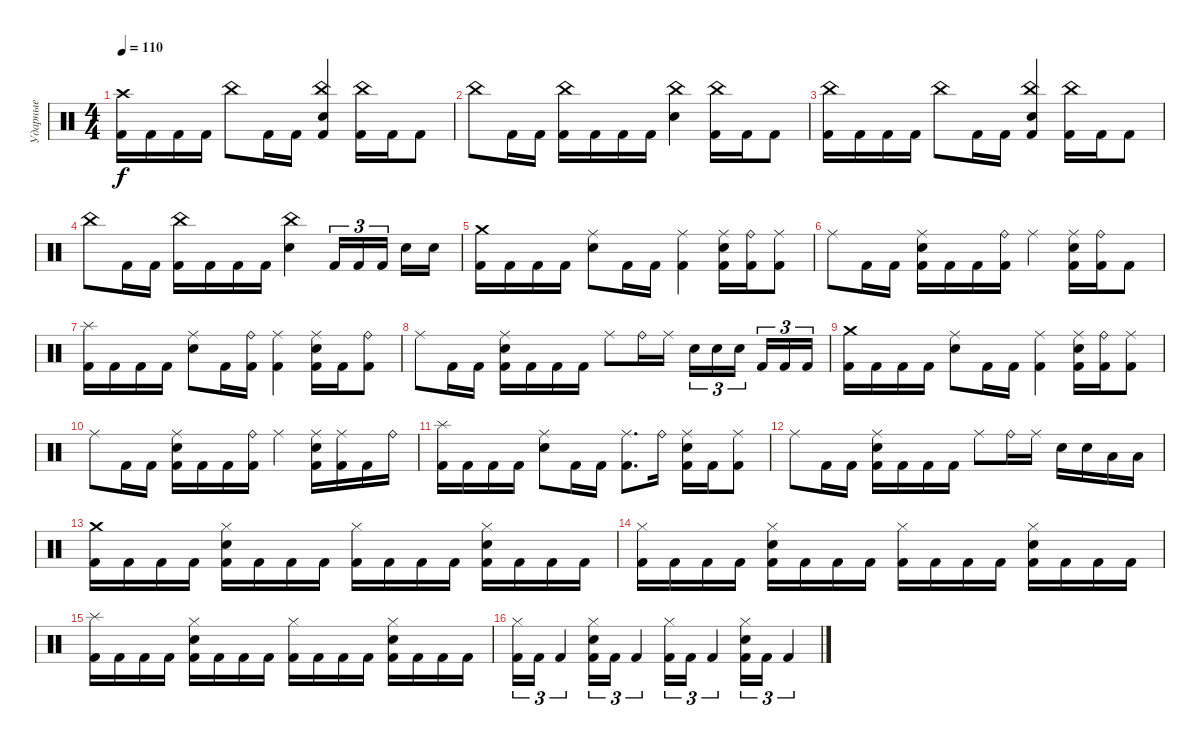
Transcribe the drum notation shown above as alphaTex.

\track ("Ударные" "Ударные") {instrument percussion}
\staff {score}
\articulation defaults
\ts (4 4)
\tempo 110
\clef neutral
\ks c
("Crash high (hit)" "Kick (hit) 2").16{dy f} "Kick (hit) 2".16 "Kick (hit) 2".16 "Kick (hit) 2".16 "China (hit)".8 "Kick (hit) 2".16 "Kick (hit) 2".16 ("China (hit)" "Electric Snare (hit)" "Kick (hit) 2").4 ("China (hit)" "Kick (hit) 2").16 "Kick (hit) 2".16 "Kick (hit) 2".8 |
"China (hit)".8 "Kick (hit) 2".16 "Kick (hit) 2".16 ("China (hit)" "Kick (hit) 2").16 "Kick (hit) 2".16 "Kick (hit) 2".16 "Kick (hit) 2".16 ("China (hit)" "Electric Snare (hit)").4 ("China (hit)" "Kick (hit) 2").16 "Kick (hit) 2".16 "Kick (hit) 2".8 |
("China (hit)" "Kick (hit) 2").16 "Kick (hit) 2".16 "Kick (hit) 2".16 "Kick (hit) 2".16 "China (hit)".8 "Kick (hit) 2".16 "Kick (hit) 2".16 ("China (hit)" "Electric Snare (hit)" "Kick (hit) 2").4 ("China (hit)" "Kick (hit) 2").16 "Kick (hit) 2".16 "Kick (hit) 2".8 |
"China (hit)".8 "Kick (hit) 2".16 "Kick (hit) 2".16 ("China (hit)" "Kick (hit) 2").16 "Kick (hit) 2".16 "Kick (hit) 2".16 "Kick (hit) 2".16 ("China (hit)" "Electric Snare (hit)").4 "Kick (hit) 2".16{tu (3 2)} "Kick (hit) 2".16{tu (3 2)} "Kick (hit) 2".16{tu (3 2) beam splitsecondary} "Electric Snare (hit)".16 "Electric Snare (hit)".16 |
("Crash medium (hit)" "Kick (hit) 2").16 "Kick (hit) 2".16 "Kick (hit) 2".16 "Kick (hit) 2".16 ("Ride (middle)" "Electric Snare (hit)").8 "Kick (hit) 2".16 "Kick (hit) 2".16 ("Ride (middle)" "Kick (hit) 2").4 ("Ride (middle)" "Electric Snare (hit)" "Kick (hit) 2").16 ("Ride (bell)" "Kick (hit) 2").16 ("Ride (middle)" "Kick (hit) 2").8 |
"Ride (middle)".8 "Kick (hit) 2".16 "Kick (hit) 2".16 ("Ride (middle)" "Electric Snare (hit)" "Kick (hit) 2").16 "Kick (hit) 2".16 "Kick (hit) 2".16 ("Ride (bell)" "Kick (hit) 2").16 "Ride (middle)".4 ("Ride (middle)" "Electric Snare (hit)" "Kick (hit) 2").16 ("Ride (bell)" "Kick (hit) 2").16 "Kick (hit) 2".8 |
("Splash (hit)" "Kick (hit) 2").16 "Kick (hit) 2".16 "Kick (hit) 2".16 "Kick (hit) 2".16 ("Ride (middle)" "Electric Snare (hit)").8 "Kick (hit) 2".16 ("Ride (bell)" "Kick (hit) 2").16 ("Ride (middle)" "Kick (hit) 2").4 ("Ride (middle)" "Electric Snare (hit)" "Kick (hit) 2").16 "Kick (hit) 2".16 ("Ride (bell)" "Kick (hit) 2").8 |
"Ride (middle)".8 "Kick (hit) 2".16 "Kick (hit) 2".16 ("Ride (middle)" "Electric Snare (hit)" "Kick (hit) 2").16 "Kick (hit) 2".16 "Kick (hit) 2".16 "Kick (hit) 2".16 "Ride (middle)".8 "Ride (bell)".16 "Ride (middle)".16 "Electric Snare (hit)".16{tu (3 2)} "Electric Snare (hit)".16{tu (3 2)} "Electric Snare (hit)".16{tu (3 2) beam splitsecondary} "Kick (hit) 2".16{tu (3 2)} "Kick (hit) 2".16{tu (3 2)} "Kick (hit) 2".16{tu (3 2)} |
("Crash medium (hit)" "Kick (hit) 2").16 "Kick (hit) 2".16 "Kick (hit) 2".16 "Kick (hit) 2".16 ("Ride (middle)" "Electric Snare (hit)").8 "Kick (hit) 2".16 "Kick (hit) 2".16 ("Ride (middle)" "Kick (hit) 2").4 ("Ride (middle)" "Electric Snare (hit)" "Kick (hit) 2").16 ("Ride (bell)" "Kick (hit) 2").16 ("Ride (middle)" "Kick (hit) 2").8 |
"Ride (middle)".8 "Kick (hit) 2".16 "Kick (hit) 2".16 ("Ride (middle)" "Electric Snare (hit)" "Kick (hit) 2").16 "Kick (hit) 2".16 "Kick (hit) 2".16 ("Ride (bell)" "Kick (hit) 2").16 "Ride (middle)".4 ("Ride (middle)" "Electric Snare (hit)" "Kick (hit) 2").16 ("Ride (middle)" "Kick (hit) 2").16 "Kick (hit) 2".16 "Ride (bell)".16 |
("Splash (hit)" "Kick (hit) 2").16 "Kick (hit) 2".16 "Kick (hit) 2".16 "Kick (hit) 2".16 ("Ride (middle)" "Electric Snare (hit)").8 "Kick (hit) 2".16 "Kick (hit) 2".16 ("Ride (middle)" "Kick (hit) 2").8{d} "Ride (bell)".16 ("Ride (middle)" "Electric Snare (hit)" "Kick (hit) 2").16 "Kick (hit) 2".16 ("Ride (middle)" "Kick (hit) 2").8 |
"Ride (middle)".8 "Kick (hit) 2".16 "Kick (hit) 2".16 ("Ride (middle)" "Electric Snare (hit)" "Kick (hit) 2").16 "Kick (hit) 2".16 "Kick (hit) 2".16 "Kick (hit) 2".16 "Ride (middle)".8 "Ride (bell)".16 "Ride (middle)".16 "Electric Snare (hit)".16 "Electric Snare (hit)".16 "Low Tom (hit)".16 "Low Tom (hit)".16 |
("Crash medium (hit)" "Kick (hit) 2").16 "Kick (hit) 2".16 "Kick (hit) 2".16 "Kick (hit) 2".16 ("Hi-Hat (closed)" "Electric Snare (hit)" "Kick (hit) 2").16 "Kick (hit) 2".16 "Kick (hit) 2".16 "Kick (hit) 2".16 ("Hi-Hat (closed)" "Kick (hit) 2").16 "Kick (hit) 2".16 "Kick (hit) 2".16 "Kick (hit) 2".16 ("Hi-Hat (closed)" "Electric Snare (hit)" "Kick (hit) 2").16 "Kick (hit) 2".16 "Kick (hit) 2".16 "Kick (hit) 2".16 |
("Hi-Hat (closed)" "Kick (hit) 2").16 "Kick (hit) 2".16 "Kick (hit) 2".16 "Kick (hit) 2".16 ("Hi-Hat (closed)" "Electric Snare (hit)" "Kick (hit) 2").16 "Kick (hit) 2".16 "Kick (hit) 2".16 "Kick (hit) 2".16 ("Hi-Hat (closed)" "Kick (hit) 2").16 "Kick (hit) 2".16 "Kick (hit) 2".16 "Kick (hit) 2".16 ("Hi-Hat (closed)" "Electric Snare (hit)" "Kick (hit) 2").16 "Kick (hit) 2".16 "Kick (hit) 2".16 "Kick (hit) 2".16 |
("Splash (hit)" "Kick (hit) 2").16 "Kick (hit) 2".16 "Kick (hit) 2".16 "Kick (hit) 2".16 ("Hi-Hat (closed)" "Electric Snare (hit)" "Kick (hit) 2").16 "Kick (hit) 2".16 "Kick (hit) 2".16 "Kick (hit) 2".16 ("Hi-Hat (closed)" "Kick (hit) 2").16 "Kick (hit) 2".16 "Kick (hit) 2".16 "Kick (hit) 2".16 ("Hi-Hat (closed)" "Electric Snare (hit)" "Kick (hit) 2").16 "Kick (hit) 2".16 "Kick (hit) 2".16 "Kick (hit) 2".16 |
("Hi-Hat (closed)" "Kick (hit) 2").16{tu (3 2)} "Kick (hit) 2".16{tu (3 2)} "Kick (hit) 2".4{tu (3 2)} ("Hi-Hat (closed)" "Electric Snare (hit)" "Kick (hit) 2").16{tu (3 2)} "Kick (hit) 2".16{tu (3 2)} "Kick (hit) 2".4{tu (3 2)} ("Hi-Hat (closed)" "Kick (hit) 2").16{tu (3 2)} "Kick (hit) 2".16{tu (3 2)} "Kick (hit) 2".4{tu (3 2)} ("Hi-Hat (closed)" "Electric Snare (hit)" "Kick (hit) 2").16{tu (3 2)} "Kick (hit) 2".16{tu (3 2)} "Kick (hit) 2".4{tu (3 2)}
